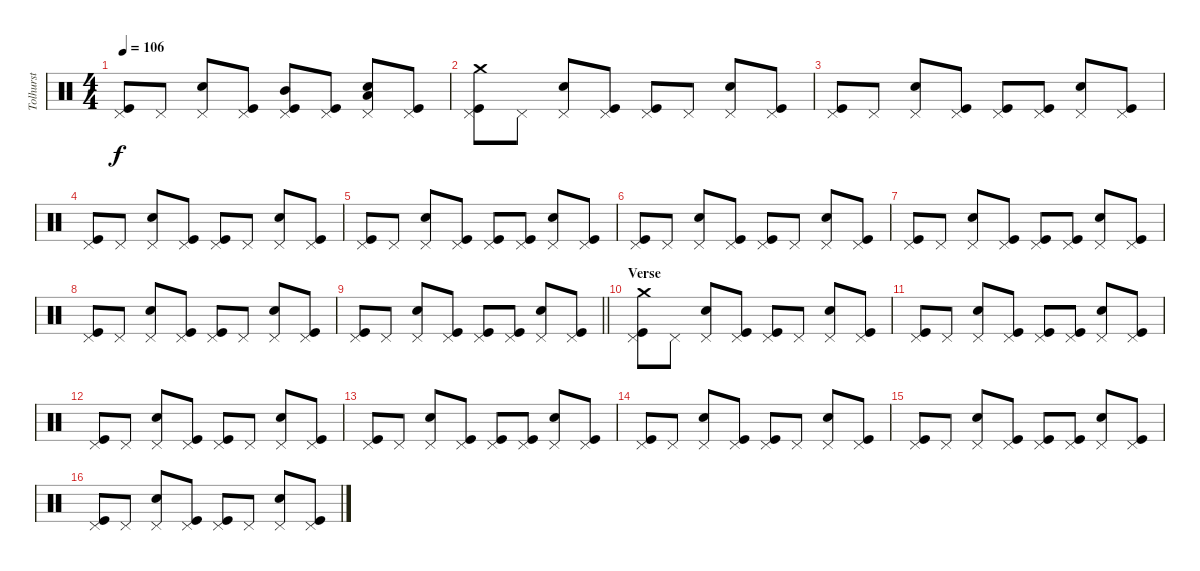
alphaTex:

\track ("Tolhurst" "Tolhurst") {instrument percussion}
\staff {score}
\articulation defaults
\ts (4 4)
\tempo 106
\clef neutral
\ks c
("Pedal Hi-Hat (hit)" "Kick (hit)").8{dy f} "Pedal Hi-Hat (hit)".8 ("Pedal Hi-Hat (hit)" "Snare (hit) 2").8 ("Pedal Hi-Hat (hit)" "Kick (hit)").8 ("Mid Tom (hit)" "Pedal Hi-Hat (hit)" "Kick (hit)").8 ("Pedal Hi-Hat (hit)" "Kick (hit)").8 ("Low Tom (hit)" "Pedal Hi-Hat (hit)" "Snare (hit) 2").8 ("Pedal Hi-Hat (hit)" "Kick (hit)").8 |
("Crash medium (hit)" "Pedal Hi-Hat (hit)" "Kick (hit)").8 "Pedal Hi-Hat (hit)".8 ("Pedal Hi-Hat (hit)" "Snare (hit) 2").8 ("Pedal Hi-Hat (hit)" "Kick (hit)").8 ("Pedal Hi-Hat (hit)" "Kick (hit)").8 "Pedal Hi-Hat (hit)".8 ("Pedal Hi-Hat (hit)" "Snare (hit) 2").8 ("Pedal Hi-Hat (hit)" "Kick (hit)").8 |
("Pedal Hi-Hat (hit)" "Kick (hit)").8 "Pedal Hi-Hat (hit)".8 ("Pedal Hi-Hat (hit)" "Snare (hit) 2").8 ("Pedal Hi-Hat (hit)" "Kick (hit)").8 ("Pedal Hi-Hat (hit)" "Kick (hit)").8 ("Pedal Hi-Hat (hit)" "Kick (hit)").8 ("Pedal Hi-Hat (hit)" "Snare (hit) 2").8 ("Pedal Hi-Hat (hit)" "Kick (hit)").8 |
("Pedal Hi-Hat (hit)" "Kick (hit)").8 "Pedal Hi-Hat (hit)".8 ("Pedal Hi-Hat (hit)" "Snare (hit) 2").8 ("Pedal Hi-Hat (hit)" "Kick (hit)").8 ("Pedal Hi-Hat (hit)" "Kick (hit)").8 "Pedal Hi-Hat (hit)".8 ("Pedal Hi-Hat (hit)" "Snare (hit) 2").8 ("Pedal Hi-Hat (hit)" "Kick (hit)").8 |
("Pedal Hi-Hat (hit)" "Kick (hit)").8 "Pedal Hi-Hat (hit)".8 ("Pedal Hi-Hat (hit)" "Snare (hit) 2").8 ("Pedal Hi-Hat (hit)" "Kick (hit)").8 ("Pedal Hi-Hat (hit)" "Kick (hit)").8 ("Pedal Hi-Hat (hit)" "Kick (hit)").8 ("Pedal Hi-Hat (hit)" "Snare (hit) 2").8 ("Pedal Hi-Hat (hit)" "Kick (hit)").8 |
("Pedal Hi-Hat (hit)" "Kick (hit)").8 "Pedal Hi-Hat (hit)".8 ("Pedal Hi-Hat (hit)" "Snare (hit) 2").8 ("Pedal Hi-Hat (hit)" "Kick (hit)").8 ("Pedal Hi-Hat (hit)" "Kick (hit)").8 "Pedal Hi-Hat (hit)".8 ("Pedal Hi-Hat (hit)" "Snare (hit) 2").8 ("Pedal Hi-Hat (hit)" "Kick (hit)").8 |
("Pedal Hi-Hat (hit)" "Kick (hit)").8 "Pedal Hi-Hat (hit)".8 ("Pedal Hi-Hat (hit)" "Snare (hit) 2").8 ("Pedal Hi-Hat (hit)" "Kick (hit)").8 ("Pedal Hi-Hat (hit)" "Kick (hit)").8 ("Pedal Hi-Hat (hit)" "Kick (hit)").8 ("Pedal Hi-Hat (hit)" "Snare (hit) 2").8 ("Pedal Hi-Hat (hit)" "Kick (hit)").8 |
("Pedal Hi-Hat (hit)" "Kick (hit)").8 "Pedal Hi-Hat (hit)".8 ("Pedal Hi-Hat (hit)" "Snare (hit) 2").8 ("Pedal Hi-Hat (hit)" "Kick (hit)").8 ("Pedal Hi-Hat (hit)" "Kick (hit)").8 "Pedal Hi-Hat (hit)".8 ("Pedal Hi-Hat (hit)" "Snare (hit) 2").8 ("Pedal Hi-Hat (hit)" "Kick (hit)").8 |
\barLineRight lightlight
("Pedal Hi-Hat (hit)" "Kick (hit)").8 "Pedal Hi-Hat (hit)".8 ("Pedal Hi-Hat (hit)" "Snare (hit) 2").8 ("Pedal Hi-Hat (hit)" "Kick (hit)").8 ("Pedal Hi-Hat (hit)" "Kick (hit)").8 ("Pedal Hi-Hat (hit)" "Kick (hit)").8 ("Pedal Hi-Hat (hit)" "Snare (hit) 2").8 ("Pedal Hi-Hat (hit)" "Kick (hit)").8 |
\section ("" "Verse ")
("Crash medium (hit)" "Pedal Hi-Hat (hit)" "Kick (hit)").8 "Pedal Hi-Hat (hit)".8 ("Pedal Hi-Hat (hit)" "Snare (hit) 2").8 ("Pedal Hi-Hat (hit)" "Kick (hit)").8 ("Pedal Hi-Hat (hit)" "Kick (hit)").8 "Pedal Hi-Hat (hit)".8 ("Pedal Hi-Hat (hit)" "Snare (hit) 2").8 ("Pedal Hi-Hat (hit)" "Kick (hit)").8 |
("Pedal Hi-Hat (hit)" "Kick (hit)").8 "Pedal Hi-Hat (hit)".8 ("Pedal Hi-Hat (hit)" "Snare (hit) 2").8 ("Pedal Hi-Hat (hit)" "Kick (hit)").8 ("Pedal Hi-Hat (hit)" "Kick (hit)").8 ("Pedal Hi-Hat (hit)" "Kick (hit)").8 ("Pedal Hi-Hat (hit)" "Snare (hit) 2").8 ("Pedal Hi-Hat (hit)" "Kick (hit)").8 |
("Pedal Hi-Hat (hit)" "Kick (hit)").8 "Pedal Hi-Hat (hit)".8 ("Pedal Hi-Hat (hit)" "Snare (hit) 2").8 ("Pedal Hi-Hat (hit)" "Kick (hit)").8 ("Pedal Hi-Hat (hit)" "Kick (hit)").8 "Pedal Hi-Hat (hit)".8 ("Pedal Hi-Hat (hit)" "Snare (hit) 2").8 ("Pedal Hi-Hat (hit)" "Kick (hit)").8 |
("Pedal Hi-Hat (hit)" "Kick (hit)").8 "Pedal Hi-Hat (hit)".8 ("Pedal Hi-Hat (hit)" "Snare (hit) 2").8 ("Pedal Hi-Hat (hit)" "Kick (hit)").8 ("Pedal Hi-Hat (hit)" "Kick (hit)").8 ("Pedal Hi-Hat (hit)" "Kick (hit)").8 ("Pedal Hi-Hat (hit)" "Snare (hit) 2").8 ("Pedal Hi-Hat (hit)" "Kick (hit)").8 |
("Pedal Hi-Hat (hit)" "Kick (hit)").8 "Pedal Hi-Hat (hit)".8 ("Pedal Hi-Hat (hit)" "Snare (hit) 2").8 ("Pedal Hi-Hat (hit)" "Kick (hit)").8 ("Pedal Hi-Hat (hit)" "Kick (hit)").8 "Pedal Hi-Hat (hit)".8 ("Pedal Hi-Hat (hit)" "Snare (hit) 2").8 ("Pedal Hi-Hat (hit)" "Kick (hit)").8 |
("Pedal Hi-Hat (hit)" "Kick (hit)").8 "Pedal Hi-Hat (hit)".8 ("Pedal Hi-Hat (hit)" "Snare (hit) 2").8 ("Pedal Hi-Hat (hit)" "Kick (hit)").8 ("Pedal Hi-Hat (hit)" "Kick (hit)").8 ("Pedal Hi-Hat (hit)" "Kick (hit)").8 ("Pedal Hi-Hat (hit)" "Snare (hit) 2").8 ("Pedal Hi-Hat (hit)" "Kick (hit)").8 |
("Pedal Hi-Hat (hit)" "Kick (hit)").8 "Pedal Hi-Hat (hit)".8 ("Pedal Hi-Hat (hit)" "Snare (hit) 2").8 ("Pedal Hi-Hat (hit)" "Kick (hit)").8 ("Pedal Hi-Hat (hit)" "Kick (hit)").8 "Pedal Hi-Hat (hit)".8 ("Pedal Hi-Hat (hit)" "Snare (hit) 2").8 ("Pedal Hi-Hat (hit)" "Kick (hit)").8
